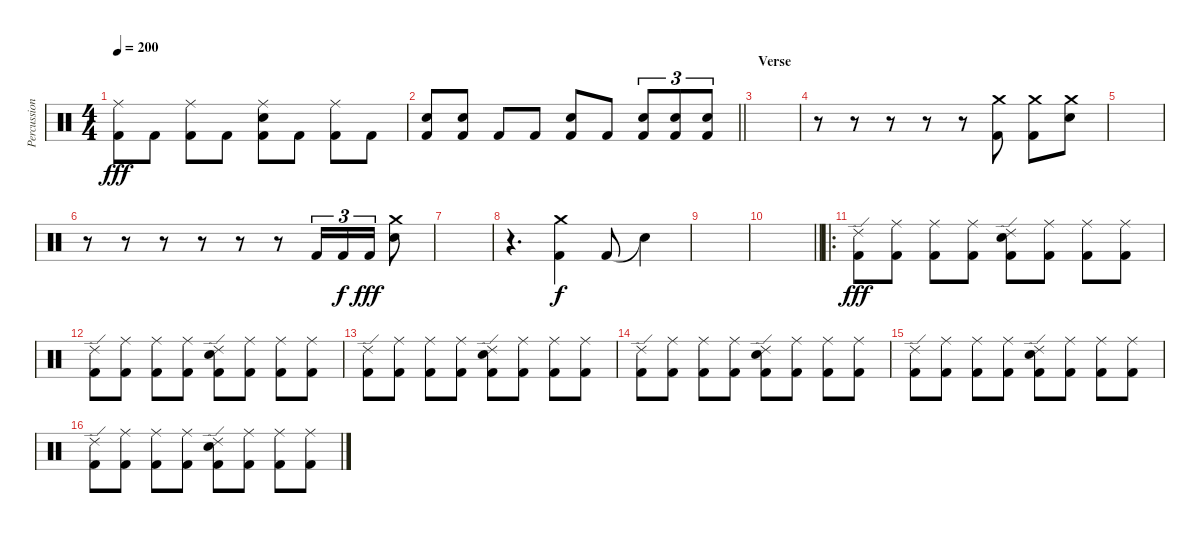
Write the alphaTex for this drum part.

\track ("Percussion" "Percussion") {instrument percussion}
\staff {score}
\articulation defaults
\ts (4 4)
\tempo 200
\clef neutral
\ks c
("Ride (middle)" "Kick (hit) 2").8{dy fff} "Kick (hit) 2".8 ("Ride (middle)" "Kick (hit) 2").8 "Kick (hit) 2".8 ("Ride (middle)" "Snare (hit) 2" "Kick (hit) 2").8 "Kick (hit) 2".8 ("Ride (middle)" "Kick (hit) 2").8 "Kick (hit) 2".8 |
\barLineRight lightlight
("Snare (hit) 2" "Kick (hit) 2").8 ("Snare (hit) 2" "Kick (hit) 2").8 "Kick (hit) 2".8 "Kick (hit) 2".8 ("Snare (hit) 2" "Kick (hit) 2").8 "Kick (hit) 2".8 ("Snare (hit) 2" "Kick (hit) 2").8{tu (3 2)} ("Snare (hit) 2" "Kick (hit) 2").8{tu (3 2)} ("Snare (hit) 2" "Kick (hit) 2").8{tu (3 2)} |
\section ("" "Verse")
|
r.8 r.8 r.8 r.8 r.8 ("Crash medium (hit)" "Kick (hit) 2").8 ("Crash medium (hit)" "Kick (hit) 2").8 ("Crash medium (hit)" "Snare (hit) 2").8 |
|
r.8 r.8 r.8 r.8 r.8 r.8 "Kick (hit) 2".16{tu (3 2)} "Kick (hit) 2".16{tu (3 2) dy f} "Kick (hit) 2".16{tu (3 2) dy fff} ("Crash medium (hit)" "Snare (hit) 2").8 |
|
r.4{d} ("Crash medium (hit)" "Kick (hit) 2").4{dy f} "Kick (hit) 2".8 "Snare (hit)"{t}.4 |
|
\barLineRight lightlight
|
\ro
("Ride (edge) 2" "Kick (hit) 2").8{dy fff} ("Ride (middle)" "Kick (hit) 2").8 ("Ride (middle)" "Kick (hit) 2").8 ("Ride (middle)" "Kick (hit) 2").8 ("Ride (edge) 2" "Snare (hit) 2" "Kick (hit) 2").8 ("Ride (middle)" "Kick (hit) 2").8 ("Ride (middle)" "Kick (hit) 2").8 ("Ride (middle)" "Kick (hit) 2").8 |
("Ride (edge) 2" "Kick (hit) 2").8 ("Ride (middle)" "Kick (hit) 2").8 ("Ride (middle)" "Kick (hit) 2").8 ("Ride (middle)" "Kick (hit) 2").8 ("Ride (edge) 2" "Snare (hit) 2" "Kick (hit) 2").8 ("Ride (middle)" "Kick (hit) 2").8 ("Ride (middle)" "Kick (hit) 2").8 ("Ride (middle)" "Kick (hit) 2").8 |
("Ride (edge) 2" "Kick (hit) 2").8 ("Ride (middle)" "Kick (hit) 2").8 ("Ride (middle)" "Kick (hit) 2").8 ("Ride (middle)" "Kick (hit) 2").8 ("Ride (edge) 2" "Snare (hit) 2" "Kick (hit) 2").8 ("Ride (middle)" "Kick (hit) 2").8 ("Ride (middle)" "Kick (hit) 2").8 ("Ride (middle)" "Kick (hit) 2").8 |
("Ride (edge) 2" "Kick (hit) 2").8 ("Ride (middle)" "Kick (hit) 2").8 ("Ride (middle)" "Kick (hit) 2").8 ("Ride (middle)" "Kick (hit) 2").8 ("Ride (edge) 2" "Snare (hit) 2" "Kick (hit) 2").8 ("Ride (middle)" "Kick (hit) 2").8 ("Ride (middle)" "Kick (hit) 2").8 ("Ride (middle)" "Kick (hit) 2").8 |
("Ride (edge) 2" "Kick (hit) 2").8 ("Ride (middle)" "Kick (hit) 2").8 ("Ride (middle)" "Kick (hit) 2").8 ("Ride (middle)" "Kick (hit) 2").8 ("Ride (edge) 2" "Snare (hit) 2" "Kick (hit) 2").8 ("Ride (middle)" "Kick (hit) 2").8 ("Ride (middle)" "Kick (hit) 2").8 ("Ride (middle)" "Kick (hit) 2").8 |
("Ride (edge) 2" "Kick (hit) 2").8 ("Ride (middle)" "Kick (hit) 2").8 ("Ride (middle)" "Kick (hit) 2").8 ("Ride (middle)" "Kick (hit) 2").8 ("Ride (edge) 2" "Snare (hit) 2" "Kick (hit) 2").8 ("Ride (middle)" "Kick (hit) 2").8 ("Ride (middle)" "Kick (hit) 2").8 ("Ride (middle)" "Kick (hit) 2").8
